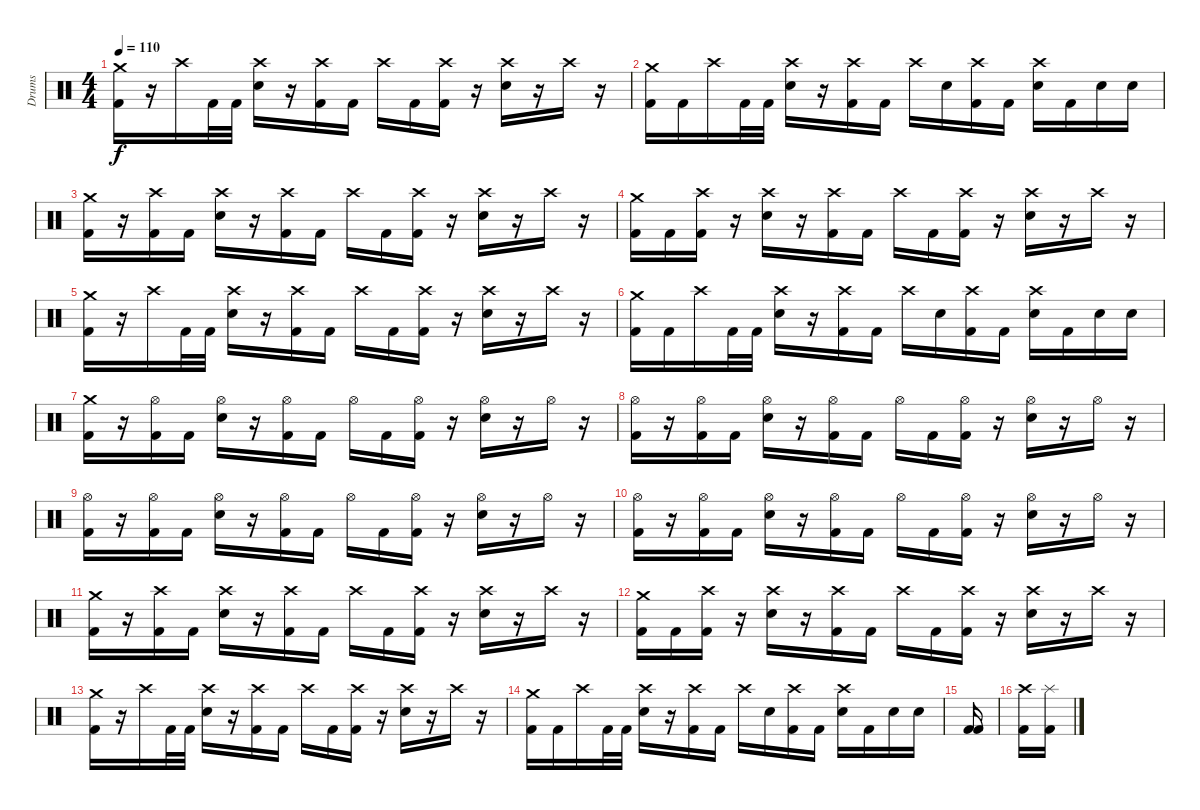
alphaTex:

\track ("Drums" "Drums") {mute instrument percussion}
\staff {score}
\articulation defaults
\ts (4 4)
\tempo 110
\clef neutral
\ks c
("Crash medium (hit)" "Kick (hit) 2").16{dy f} r.16 "Crash high (hit)".16 "Kick (hit) 2".32 "Kick (hit) 2".32 ("Crash high (hit)" "Electric Snare (hit)").16 r.16 ("Crash high (hit)" "Kick (hit) 2").16 "Kick (hit) 2".16 "Crash high (hit)".16 "Kick (hit) 2".16 ("Crash high (hit)" "Kick (hit) 2").16 r.16 ("Crash high (hit)" "Electric Snare (hit)").16 r.16 "Crash high (hit)".16 r.16 |
("Crash medium (hit)" "Kick (hit) 2").16 "Kick (hit) 2".16 "Crash high (hit)".16 "Kick (hit) 2".32 "Kick (hit) 2".32 ("Crash high (hit)" "Electric Snare (hit)").16 r.16 ("Crash high (hit)" "Kick (hit) 2").16 "Kick (hit) 2".16 "Crash high (hit)".16 "Electric Snare (hit)".16 ("Crash high (hit)" "Kick (hit) 2").16 "Kick (hit) 2".16 ("Crash high (hit)" "Electric Snare (hit)").16 "Kick (hit) 2".16 "Electric Snare (hit)".16 "Electric Snare (hit)".16 |
("Crash medium (hit)" "Kick (hit) 2").16 r.16 ("Crash high (hit)" "Kick (hit) 2").16 "Kick (hit) 2".16 ("Crash high (hit)" "Electric Snare (hit)").16 r.16 ("Crash high (hit)" "Kick (hit) 2").16 "Kick (hit) 2".16 "Crash high (hit)".16 "Kick (hit) 2".16 ("Crash high (hit)" "Kick (hit) 2").16 r.16 ("Crash high (hit)" "Electric Snare (hit)").16 r.16 "Crash high (hit)".16 r.16 |
("Crash medium (hit)" "Kick (hit) 2").16 "Kick (hit) 2".16 ("Crash high (hit)" "Kick (hit) 2").16 r.16 ("Crash high (hit)" "Electric Snare (hit)").16 r.16 ("Crash high (hit)" "Kick (hit) 2").16 "Kick (hit) 2".16 "Crash high (hit)".16 "Kick (hit) 2".16 ("Crash high (hit)" "Kick (hit) 2").16 r.16 ("Crash high (hit)" "Electric Snare (hit)").16 r.16 "Crash high (hit)".16 r.16 |
("Crash medium (hit)" "Kick (hit) 2").16 r.16 "Crash high (hit)".16 "Kick (hit) 2".32 "Kick (hit) 2".32 ("Crash high (hit)" "Electric Snare (hit)").16 r.16 ("Crash high (hit)" "Kick (hit) 2").16 "Kick (hit) 2".16 "Crash high (hit)".16 "Kick (hit) 2".16 ("Crash high (hit)" "Kick (hit) 2").16 r.16 ("Crash high (hit)" "Electric Snare (hit)").16 r.16 "Crash high (hit)".16 r.16 |
("Crash medium (hit)" "Kick (hit) 2").16 "Kick (hit) 2".16 "Crash high (hit)".16 "Kick (hit) 2".32 "Kick (hit) 2".32 ("Crash high (hit)" "Electric Snare (hit)").16 r.16 ("Crash high (hit)" "Kick (hit) 2").16 "Kick (hit) 2".16 "Crash high (hit)".16 "Electric Snare (hit)".16 ("Crash high (hit)" "Kick (hit) 2").16 "Kick (hit) 2".16 ("Crash high (hit)" "Electric Snare (hit)").16 "Kick (hit) 2".16 "Electric Snare (hit)".16 "Electric Snare (hit)".16 |
("Crash medium (hit)" "Kick (hit) 2").16 r.16 ("Hi-Hat (open)" "Kick (hit) 2").16 "Kick (hit) 2".16 ("Hi-Hat (open)" "Electric Snare (hit)").16 r.16 ("Hi-Hat (open)" "Kick (hit) 2").16 "Kick (hit) 2".16 "Hi-Hat (open)".16 "Kick (hit) 2".16 ("Hi-Hat (open)" "Kick (hit) 2").16 r.16 ("Hi-Hat (open)" "Electric Snare (hit)").16 r.16 "Hi-Hat (open)".16 r.16 |
("Hi-Hat (open)" "Kick (hit) 2").16 r.16 ("Hi-Hat (open)" "Kick (hit) 2").16 "Kick (hit) 2".16 ("Hi-Hat (open)" "Electric Snare (hit)").16 r.16 ("Hi-Hat (open)" "Kick (hit) 2").16 "Kick (hit) 2".16 "Hi-Hat (open)".16 "Kick (hit) 2".16 ("Hi-Hat (open)" "Kick (hit) 2").16 r.16 ("Hi-Hat (open)" "Electric Snare (hit)").16 r.16 "Hi-Hat (open)".16 r.16 |
("Hi-Hat (open)" "Kick (hit) 2").16 r.16 ("Hi-Hat (open)" "Kick (hit) 2").16 "Kick (hit) 2".16 ("Hi-Hat (open)" "Electric Snare (hit)").16 r.16 ("Hi-Hat (open)" "Kick (hit) 2").16 "Kick (hit) 2".16 "Hi-Hat (open)".16 "Kick (hit) 2".16 ("Hi-Hat (open)" "Kick (hit) 2").16 r.16 ("Hi-Hat (open)" "Electric Snare (hit)").16 r.16 "Hi-Hat (open)".16 r.16 |
("Hi-Hat (open)" "Kick (hit) 2").16 r.16 ("Hi-Hat (open)" "Kick (hit) 2").16 "Kick (hit) 2".16 ("Hi-Hat (open)" "Electric Snare (hit)").16 r.16 ("Hi-Hat (open)" "Kick (hit) 2").16 "Kick (hit) 2".16 "Hi-Hat (open)".16 "Kick (hit) 2".16 ("Hi-Hat (open)" "Kick (hit) 2").16 r.16 ("Hi-Hat (open)" "Electric Snare (hit)").16 r.16 "Hi-Hat (open)".16 r.16 |
("Crash medium (hit)" "Kick (hit) 2").16 r.16 ("Crash high (hit)" "Kick (hit) 2").16 "Kick (hit) 2".16 ("Crash high (hit)" "Electric Snare (hit)").16 r.16 ("Crash high (hit)" "Kick (hit) 2").16 "Kick (hit) 2".16 "Crash high (hit)".16 "Kick (hit) 2".16 ("Crash high (hit)" "Kick (hit) 2").16 r.16 ("Crash high (hit)" "Electric Snare (hit)").16 r.16 "Crash high (hit)".16 r.16 |
("Crash medium (hit)" "Kick (hit) 2").16 "Kick (hit) 2".16 ("Crash high (hit)" "Kick (hit) 2").16 r.16 ("Crash high (hit)" "Electric Snare (hit)").16 r.16 ("Crash high (hit)" "Kick (hit) 2").16 "Kick (hit) 2".16 "Crash high (hit)".16 "Kick (hit) 2".16 ("Crash high (hit)" "Kick (hit) 2").16 r.16 ("Crash high (hit)" "Electric Snare (hit)").16 r.16 "Crash high (hit)".16 r.16 |
("Crash medium (hit)" "Kick (hit) 2").16 r.16 "Crash high (hit)".16 "Kick (hit) 2".32 "Kick (hit) 2".32 ("Crash high (hit)" "Electric Snare (hit)").16 r.16 ("Crash high (hit)" "Kick (hit) 2").16 "Kick (hit) 2".16 "Crash high (hit)".16 "Kick (hit) 2".16 ("Crash high (hit)" "Kick (hit) 2").16 r.16 ("Crash high (hit)" "Electric Snare (hit)").16 r.16 "Crash high (hit)".16 r.16 |
("Crash medium (hit)" "Kick (hit) 2").16 "Kick (hit) 2".16 "Crash high (hit)".16 "Kick (hit) 2".32 "Kick (hit) 2".32 ("Crash high (hit)" "Electric Snare (hit)").16 r.16 ("Crash high (hit)" "Kick (hit) 2").16 "Kick (hit) 2".16 "Crash high (hit)".16 "Electric Snare (hit)".16 ("Crash high (hit)" "Kick (hit) 2").16 "Kick (hit) 2".16 ("Crash high (hit)" "Electric Snare (hit)").16 "Kick (hit) 2".16 "Electric Snare (hit)".16 "Electric Snare (hit)".16 |
("Kick (hit) 2" "Kick (hit) 2").16 |
("Kick (hit) 2" "Crash high (hit)").16 ("Kick (hit) 2" "Splash (hit)").16
